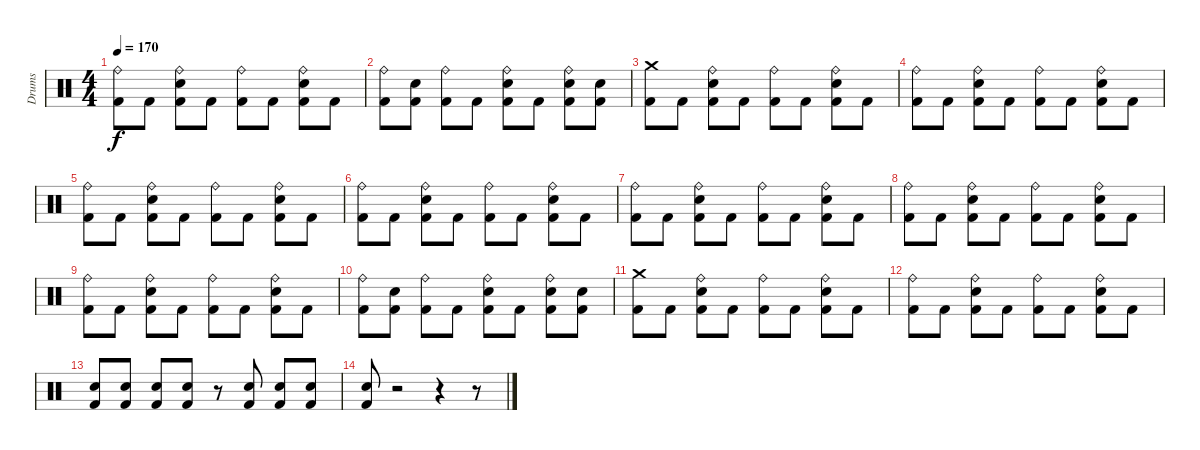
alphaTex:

\track ("Drums" "Drums") {instrument percussion}
\staff {score}
\articulation defaults
\ts (4 4)
\tempo 170
\clef neutral
\ks c
("Ride (bell)" "Kick (hit) 2").8{dy f} "Kick (hit) 2".8 ("Ride (bell)" "Electric Snare (hit)" "Kick (hit) 2").8 "Kick (hit) 2".8 ("Ride (bell)" "Kick (hit) 2").8 "Kick (hit) 2".8 ("Ride (bell)" "Electric Snare (hit)" "Kick (hit) 2").8 "Kick (hit) 2".8 |
("Ride (bell)" "Kick (hit) 2").8 ("Electric Snare (hit)" "Kick (hit) 2").8 ("Ride (bell)" "Kick (hit) 2").8 "Kick (hit) 2".8 ("Ride (bell)" "Electric Snare (hit)" "Kick (hit) 2").8 "Kick (hit) 2".8 ("Ride (bell)" "Electric Snare (hit)" "Kick (hit) 2").8 ("Electric Snare (hit)" "Kick (hit) 2").8 |
("Crash medium (hit)" "Kick (hit) 2").8 "Kick (hit) 2".8 ("Ride (bell)" "Electric Snare (hit)" "Kick (hit) 2").8 "Kick (hit) 2".8 ("Ride (bell)" "Kick (hit) 2").8 "Kick (hit) 2".8 ("Ride (bell)" "Electric Snare (hit)" "Kick (hit) 2").8 "Kick (hit) 2".8 |
("Ride (bell)" "Kick (hit) 2").8 "Kick (hit) 2".8 ("Ride (bell)" "Electric Snare (hit)" "Kick (hit) 2").8 "Kick (hit) 2".8 ("Ride (bell)" "Kick (hit) 2").8 "Kick (hit) 2".8 ("Ride (bell)" "Electric Snare (hit)" "Kick (hit) 2").8 "Kick (hit) 2".8 |
("Ride (bell)" "Kick (hit) 2").8 "Kick (hit) 2".8 ("Ride (bell)" "Electric Snare (hit)" "Kick (hit) 2").8 "Kick (hit) 2".8 ("Ride (bell)" "Kick (hit) 2").8 "Kick (hit) 2".8 ("Ride (bell)" "Electric Snare (hit)" "Kick (hit) 2").8 "Kick (hit) 2".8 |
("Ride (bell)" "Kick (hit) 2").8 "Kick (hit) 2".8 ("Ride (bell)" "Electric Snare (hit)" "Kick (hit) 2").8 "Kick (hit) 2".8 ("Ride (bell)" "Kick (hit) 2").8 "Kick (hit) 2".8 ("Ride (bell)" "Electric Snare (hit)" "Kick (hit) 2").8 "Kick (hit) 2".8 |
("Ride (bell)" "Kick (hit) 2").8 "Kick (hit) 2".8 ("Ride (bell)" "Electric Snare (hit)" "Kick (hit) 2").8 "Kick (hit) 2".8 ("Ride (bell)" "Kick (hit) 2").8 "Kick (hit) 2".8 ("Ride (bell)" "Electric Snare (hit)" "Kick (hit) 2").8 "Kick (hit) 2".8 |
("Ride (bell)" "Kick (hit) 2").8 "Kick (hit) 2".8 ("Ride (bell)" "Electric Snare (hit)" "Kick (hit) 2").8 "Kick (hit) 2".8 ("Ride (bell)" "Kick (hit) 2").8 "Kick (hit) 2".8 ("Ride (bell)" "Electric Snare (hit)" "Kick (hit) 2").8 "Kick (hit) 2".8 |
("Ride (bell)" "Kick (hit) 2").8 "Kick (hit) 2".8 ("Ride (bell)" "Electric Snare (hit)" "Kick (hit) 2").8 "Kick (hit) 2".8 ("Ride (bell)" "Kick (hit) 2").8 "Kick (hit) 2".8 ("Ride (bell)" "Electric Snare (hit)" "Kick (hit) 2").8 "Kick (hit) 2".8 |
("Ride (bell)" "Kick (hit) 2").8 ("Electric Snare (hit)" "Kick (hit) 2").8 ("Ride (bell)" "Kick (hit) 2").8 "Kick (hit) 2".8 ("Ride (bell)" "Electric Snare (hit)" "Kick (hit) 2").8 "Kick (hit) 2".8 ("Ride (bell)" "Electric Snare (hit)" "Kick (hit) 2").8 ("Electric Snare (hit)" "Kick (hit) 2").8 |
("Crash medium (hit)" "Kick (hit) 2").8 "Kick (hit) 2".8 ("Ride (bell)" "Electric Snare (hit)" "Kick (hit) 2").8 "Kick (hit) 2".8 ("Ride (bell)" "Kick (hit) 2").8 "Kick (hit) 2".8 ("Ride (bell)" "Electric Snare (hit)" "Kick (hit) 2").8 "Kick (hit) 2".8 |
("Ride (bell)" "Kick (hit) 2").8 "Kick (hit) 2".8 ("Ride (bell)" "Electric Snare (hit)" "Kick (hit) 2").8 "Kick (hit) 2".8 ("Ride (bell)" "Kick (hit) 2").8 "Kick (hit) 2".8 ("Ride (bell)" "Electric Snare (hit)" "Kick (hit) 2").8 "Kick (hit) 2".8 |
("Electric Snare (hit)" "Kick (hit) 2").8 ("Electric Snare (hit)" "Kick (hit) 2").8 ("Electric Snare (hit)" "Kick (hit) 2").8 ("Electric Snare (hit)" "Kick (hit) 2").8 r.8 ("Electric Snare (hit)" "Kick (hit) 2").8 ("Electric Snare (hit)" "Kick (hit) 2").8 ("Electric Snare (hit)" "Kick (hit) 2").8 |
("Electric Snare (hit)" "Kick (hit) 2").8 r.2 r.4 r.8
